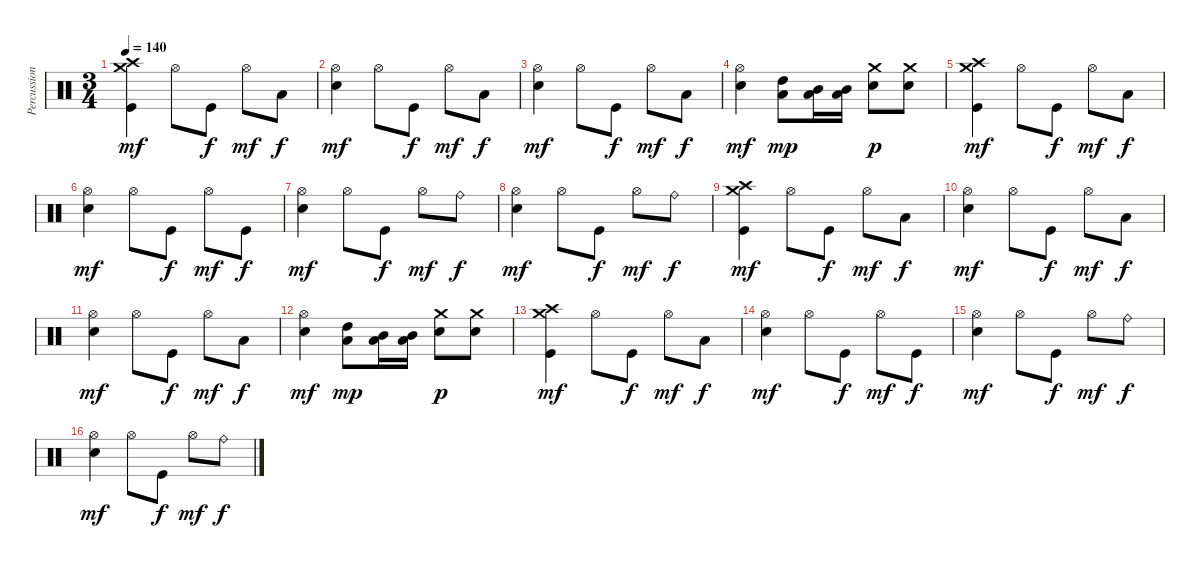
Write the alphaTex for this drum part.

\track ("Percussion" "Percussion") {instrument percussion}
\staff {score}
\articulation defaults
\ts (3 4)
\tempo 140
\clef neutral
\ks c
("Kick (hit)" "Crash high (hit)" "Crash medium (hit)").4{dy mf} "Hi-Hat (open)".8 "Kick (hit)".8{dy f} "Hi-Hat (open)".8{dy mf} "Low Floor Tom (hit)".8{dy f} |
("Electric Snare (hit)" "Hi-Hat (open)").4{dy mf} "Hi-Hat (open)".8 "Kick (hit)".8{dy f} "Hi-Hat (open)".8{dy mf} "Low Floor Tom (hit)".8{dy f} |
("Electric Snare (hit)" "Hi-Hat (open)").4{dy mf} "Hi-Hat (open)".8 "Kick (hit)".8{dy f} "Hi-Hat (open)".8{dy mf} "Low Floor Tom (hit)".8{dy f} |
("Electric Snare (hit)" "Hi-Hat (open)").4{dy mf} ("Low Tom (hit)" "High Tom (hit)").8{dy mp} ("Low Tom (hit)" "Mid Tom (hit)").16 ("Low Tom (hit)" "Mid Tom (hit)").16 ("Electric Snare (hit)" "Crash medium (hit)").8{dy p} ("Electric Snare (hit)" "Crash medium (hit)").8 |
("Kick (hit)" "Crash high (hit)" "Crash medium (hit)").4{dy mf} "Hi-Hat (open)".8 "Kick (hit)".8{dy f} "Hi-Hat (open)".8{dy mf} "Low Floor Tom (hit)".8{dy f} |
("Electric Snare (hit)" "Hi-Hat (open)").4{dy mf} "Hi-Hat (open)".8 "Kick (hit)".8{dy f} "Hi-Hat (open)".8{dy mf} "Kick (hit)".8{dy f} |
("Electric Snare (hit)" "Hi-Hat (open)").4{dy mf} "Hi-Hat (open)".8 "Kick (hit)".8{dy f} "Hi-Hat (open)".8{dy mf} "Ride (bell)".8{dy f} |
("Electric Snare (hit)" "Hi-Hat (open)").4{dy mf} "Hi-Hat (open)".8 "Kick (hit)".8{dy f} "Hi-Hat (open)".8{dy mf} "Ride (bell)".8{dy f} |
("Kick (hit)" "Crash high (hit)" "Crash medium (hit)").4{dy mf} "Hi-Hat (open)".8 "Kick (hit)".8{dy f} "Hi-Hat (open)".8{dy mf} "Low Floor Tom (hit)".8{dy f} |
("Electric Snare (hit)" "Hi-Hat (open)").4{dy mf} "Hi-Hat (open)".8 "Kick (hit)".8{dy f} "Hi-Hat (open)".8{dy mf} "Low Floor Tom (hit)".8{dy f} |
("Electric Snare (hit)" "Hi-Hat (open)").4{dy mf} "Hi-Hat (open)".8 "Kick (hit)".8{dy f} "Hi-Hat (open)".8{dy mf} "Low Floor Tom (hit)".8{dy f} |
("Electric Snare (hit)" "Hi-Hat (open)").4{dy mf} ("Low Tom (hit)" "High Tom (hit)").8{dy mp} ("Low Tom (hit)" "Mid Tom (hit)").16 ("Low Tom (hit)" "Mid Tom (hit)").16 ("Electric Snare (hit)" "Crash medium (hit)").8{dy p} ("Electric Snare (hit)" "Crash medium (hit)").8 |
("Kick (hit)" "Crash high (hit)" "Crash medium (hit)").4{dy mf} "Hi-Hat (open)".8 "Kick (hit)".8{dy f} "Hi-Hat (open)".8{dy mf} "Low Floor Tom (hit)".8{dy f} |
("Electric Snare (hit)" "Hi-Hat (open)").4{dy mf} "Hi-Hat (open)".8 "Kick (hit)".8{dy f} "Hi-Hat (open)".8{dy mf} "Kick (hit)".8{dy f} |
("Electric Snare (hit)" "Hi-Hat (open)").4{dy mf} "Hi-Hat (open)".8 "Kick (hit)".8{dy f} "Hi-Hat (open)".8{dy mf} "Ride (bell)".8{dy f} |
("Electric Snare (hit)" "Hi-Hat (open)").4{dy mf} "Hi-Hat (open)".8 "Kick (hit)".8{dy f} "Hi-Hat (open)".8{dy mf} "Ride (bell)".8{dy f}
